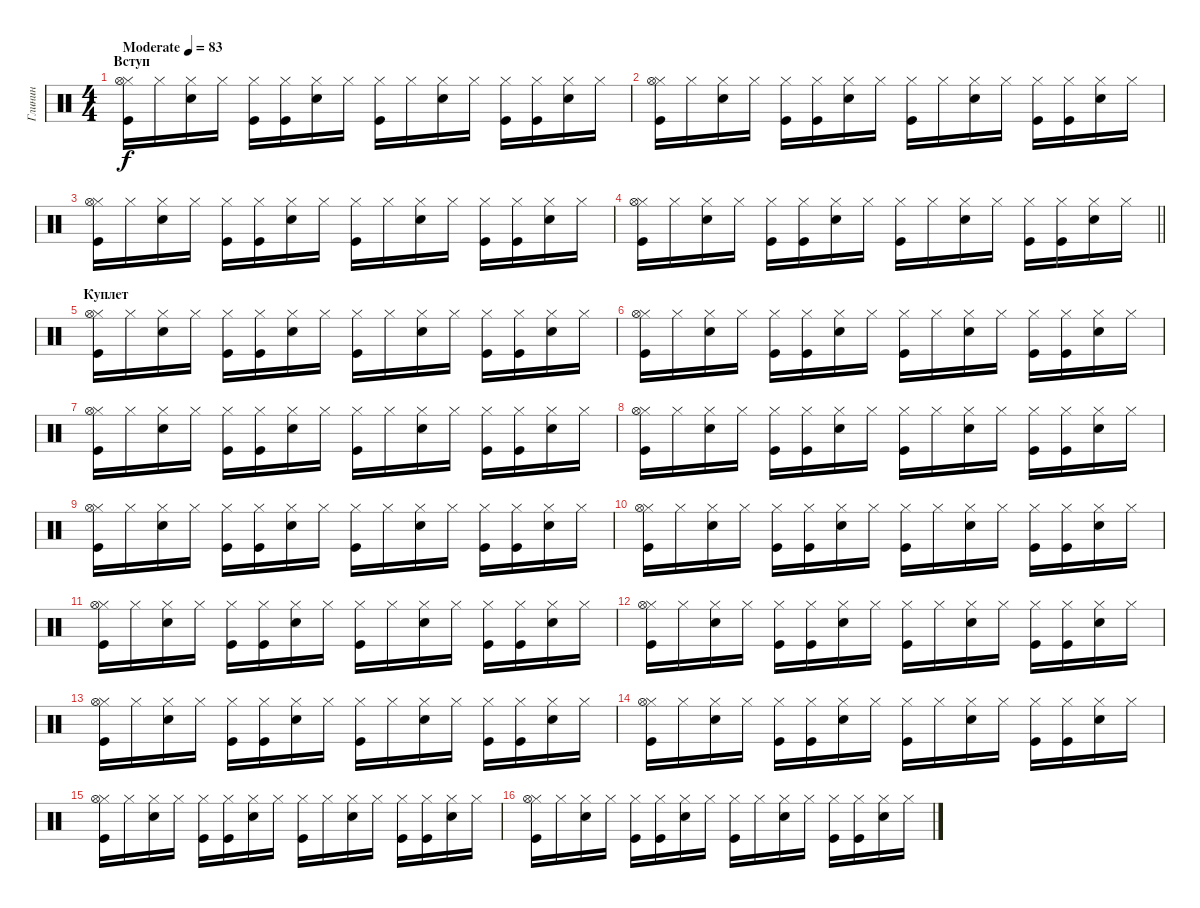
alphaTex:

\track ("Глинин" "Глинин") {instrument percussion}
\staff {score}
\articulation defaults
\ts (4 4)
\section ("" "Вступ")
\tempo (83 "Moderate")
\clef neutral
\ks c
("Hi-Hat (closed)" "Kick (hit)" "Hi-Hat (open)").16{dy f} "Hi-Hat (closed)".16 ("Hi-Hat (closed)" "Snare (hit) 2").16 "Hi-Hat (closed)".16 ("Hi-Hat (closed)" "Kick (hit)").16 ("Hi-Hat (closed)" "Kick (hit)").16 ("Hi-Hat (closed)" "Snare (hit) 2").16 "Hi-Hat (closed)".16 ("Hi-Hat (closed)" "Kick (hit)").16 "Hi-Hat (closed)".16 ("Hi-Hat (closed)" "Snare (hit) 2").16 "Hi-Hat (closed)".16 ("Hi-Hat (closed)" "Kick (hit)").16 ("Hi-Hat (closed)" "Kick (hit)").16 ("Hi-Hat (closed)" "Snare (hit) 2").16 "Hi-Hat (closed)".16 |
("Hi-Hat (closed)" "Kick (hit)" "Hi-Hat (open)").16 "Hi-Hat (closed)".16 ("Hi-Hat (closed)" "Snare (hit) 2").16 "Hi-Hat (closed)".16 ("Hi-Hat (closed)" "Kick (hit)").16 ("Hi-Hat (closed)" "Kick (hit)").16 ("Hi-Hat (closed)" "Snare (hit) 2").16 "Hi-Hat (closed)".16 ("Hi-Hat (closed)" "Kick (hit)").16 "Hi-Hat (closed)".16 ("Hi-Hat (closed)" "Snare (hit) 2").16 "Hi-Hat (closed)".16 ("Hi-Hat (closed)" "Kick (hit)").16 ("Hi-Hat (closed)" "Kick (hit)").16 ("Hi-Hat (closed)" "Snare (hit) 2").16 "Hi-Hat (closed)".16 |
("Hi-Hat (closed)" "Kick (hit)" "Hi-Hat (open)").16 "Hi-Hat (closed)".16 ("Hi-Hat (closed)" "Snare (hit) 2").16 "Hi-Hat (closed)".16 ("Hi-Hat (closed)" "Kick (hit)").16 ("Hi-Hat (closed)" "Kick (hit)").16 ("Hi-Hat (closed)" "Snare (hit) 2").16 "Hi-Hat (closed)".16 ("Hi-Hat (closed)" "Kick (hit)").16 "Hi-Hat (closed)".16 ("Hi-Hat (closed)" "Snare (hit) 2").16 "Hi-Hat (closed)".16 ("Hi-Hat (closed)" "Kick (hit)").16 ("Hi-Hat (closed)" "Kick (hit)").16 ("Hi-Hat (closed)" "Snare (hit) 2").16 "Hi-Hat (closed)".16 |
\barLineRight lightlight
("Hi-Hat (closed)" "Kick (hit)" "Hi-Hat (open)").16 "Hi-Hat (closed)".16 ("Hi-Hat (closed)" "Snare (hit) 2").16 "Hi-Hat (closed)".16 ("Hi-Hat (closed)" "Kick (hit)").16 ("Hi-Hat (closed)" "Kick (hit)").16 ("Hi-Hat (closed)" "Snare (hit) 2").16 "Hi-Hat (closed)".16 ("Hi-Hat (closed)" "Kick (hit)").16 "Hi-Hat (closed)".16 ("Hi-Hat (closed)" "Snare (hit) 2").16 "Hi-Hat (closed)".16 ("Hi-Hat (closed)" "Kick (hit)").16 ("Hi-Hat (closed)" "Kick (hit)").16 ("Hi-Hat (closed)" "Snare (hit) 2").16 "Hi-Hat (closed)".16 |
\section ("" "Куплет")
("Hi-Hat (closed)" "Kick (hit)" "Hi-Hat (open)").16 "Hi-Hat (closed)".16 ("Hi-Hat (closed)" "Snare (hit) 2").16 "Hi-Hat (closed)".16 ("Hi-Hat (closed)" "Kick (hit)").16 ("Hi-Hat (closed)" "Kick (hit)").16 ("Hi-Hat (closed)" "Snare (hit) 2").16 "Hi-Hat (closed)".16 ("Hi-Hat (closed)" "Kick (hit)").16 "Hi-Hat (closed)".16 ("Hi-Hat (closed)" "Snare (hit) 2").16 "Hi-Hat (closed)".16 ("Hi-Hat (closed)" "Kick (hit)").16 ("Hi-Hat (closed)" "Kick (hit)").16 ("Hi-Hat (closed)" "Snare (hit) 2").16 "Hi-Hat (closed)".16 |
("Hi-Hat (closed)" "Kick (hit)" "Hi-Hat (open)").16 "Hi-Hat (closed)".16 ("Hi-Hat (closed)" "Snare (hit) 2").16 "Hi-Hat (closed)".16 ("Hi-Hat (closed)" "Kick (hit)").16 ("Hi-Hat (closed)" "Kick (hit)").16 ("Hi-Hat (closed)" "Snare (hit) 2").16 "Hi-Hat (closed)".16 ("Hi-Hat (closed)" "Kick (hit)").16 "Hi-Hat (closed)".16 ("Hi-Hat (closed)" "Snare (hit) 2").16 "Hi-Hat (closed)".16 ("Hi-Hat (closed)" "Kick (hit)").16 ("Hi-Hat (closed)" "Kick (hit)").16 ("Hi-Hat (closed)" "Snare (hit) 2").16 "Hi-Hat (closed)".16 |
("Hi-Hat (closed)" "Kick (hit)" "Hi-Hat (open)").16 "Hi-Hat (closed)".16 ("Hi-Hat (closed)" "Snare (hit) 2").16 "Hi-Hat (closed)".16 ("Hi-Hat (closed)" "Kick (hit)").16 ("Hi-Hat (closed)" "Kick (hit)").16 ("Hi-Hat (closed)" "Snare (hit) 2").16 "Hi-Hat (closed)".16 ("Hi-Hat (closed)" "Kick (hit)").16 "Hi-Hat (closed)".16 ("Hi-Hat (closed)" "Snare (hit) 2").16 "Hi-Hat (closed)".16 ("Hi-Hat (closed)" "Kick (hit)").16 ("Hi-Hat (closed)" "Kick (hit)").16 ("Hi-Hat (closed)" "Snare (hit) 2").16 "Hi-Hat (closed)".16 |
("Hi-Hat (closed)" "Kick (hit)" "Hi-Hat (open)").16 "Hi-Hat (closed)".16 ("Hi-Hat (closed)" "Snare (hit) 2").16 "Hi-Hat (closed)".16 ("Hi-Hat (closed)" "Kick (hit)").16 ("Hi-Hat (closed)" "Kick (hit)").16 ("Hi-Hat (closed)" "Snare (hit) 2").16 "Hi-Hat (closed)".16 ("Hi-Hat (closed)" "Kick (hit)").16 "Hi-Hat (closed)".16 ("Hi-Hat (closed)" "Snare (hit) 2").16 "Hi-Hat (closed)".16 ("Hi-Hat (closed)" "Kick (hit)").16 ("Hi-Hat (closed)" "Kick (hit)").16 ("Hi-Hat (closed)" "Snare (hit) 2").16 "Hi-Hat (closed)".16 |
("Hi-Hat (closed)" "Kick (hit)" "Hi-Hat (open)").16 "Hi-Hat (closed)".16 ("Hi-Hat (closed)" "Snare (hit) 2").16 "Hi-Hat (closed)".16 ("Hi-Hat (closed)" "Kick (hit)").16 ("Hi-Hat (closed)" "Kick (hit)").16 ("Hi-Hat (closed)" "Snare (hit) 2").16 "Hi-Hat (closed)".16 ("Hi-Hat (closed)" "Kick (hit)").16 "Hi-Hat (closed)".16 ("Hi-Hat (closed)" "Snare (hit) 2").16 "Hi-Hat (closed)".16 ("Hi-Hat (closed)" "Kick (hit)").16 ("Hi-Hat (closed)" "Kick (hit)").16 ("Hi-Hat (closed)" "Snare (hit) 2").16 "Hi-Hat (closed)".16 |
("Hi-Hat (closed)" "Kick (hit)" "Hi-Hat (open)").16 "Hi-Hat (closed)".16 ("Hi-Hat (closed)" "Snare (hit) 2").16 "Hi-Hat (closed)".16 ("Hi-Hat (closed)" "Kick (hit)").16 ("Hi-Hat (closed)" "Kick (hit)").16 ("Hi-Hat (closed)" "Snare (hit) 2").16 "Hi-Hat (closed)".16 ("Hi-Hat (closed)" "Kick (hit)").16 "Hi-Hat (closed)".16 ("Hi-Hat (closed)" "Snare (hit) 2").16 "Hi-Hat (closed)".16 ("Hi-Hat (closed)" "Kick (hit)").16 ("Hi-Hat (closed)" "Kick (hit)").16 ("Hi-Hat (closed)" "Snare (hit) 2").16 "Hi-Hat (closed)".16 |
("Hi-Hat (closed)" "Kick (hit)" "Hi-Hat (open)").16 "Hi-Hat (closed)".16 ("Hi-Hat (closed)" "Snare (hit) 2").16 "Hi-Hat (closed)".16 ("Hi-Hat (closed)" "Kick (hit)").16 ("Hi-Hat (closed)" "Kick (hit)").16 ("Hi-Hat (closed)" "Snare (hit) 2").16 "Hi-Hat (closed)".16 ("Hi-Hat (closed)" "Kick (hit)").16 "Hi-Hat (closed)".16 ("Hi-Hat (closed)" "Snare (hit) 2").16 "Hi-Hat (closed)".16 ("Hi-Hat (closed)" "Kick (hit)").16 ("Hi-Hat (closed)" "Kick (hit)").16 ("Hi-Hat (closed)" "Snare (hit) 2").16 "Hi-Hat (closed)".16 |
("Hi-Hat (closed)" "Kick (hit)" "Hi-Hat (open)").16 "Hi-Hat (closed)".16 ("Hi-Hat (closed)" "Snare (hit) 2").16 "Hi-Hat (closed)".16 ("Hi-Hat (closed)" "Kick (hit)").16 ("Hi-Hat (closed)" "Kick (hit)").16 ("Hi-Hat (closed)" "Snare (hit) 2").16 "Hi-Hat (closed)".16 ("Hi-Hat (closed)" "Kick (hit)").16 "Hi-Hat (closed)".16 ("Hi-Hat (closed)" "Snare (hit) 2").16 "Hi-Hat (closed)".16 ("Hi-Hat (closed)" "Kick (hit)").16 ("Hi-Hat (closed)" "Kick (hit)").16 ("Hi-Hat (closed)" "Snare (hit) 2").16 "Hi-Hat (closed)".16 |
("Hi-Hat (closed)" "Kick (hit)" "Hi-Hat (open)").16 "Hi-Hat (closed)".16 ("Hi-Hat (closed)" "Snare (hit) 2").16 "Hi-Hat (closed)".16 ("Hi-Hat (closed)" "Kick (hit)").16 ("Hi-Hat (closed)" "Kick (hit)").16 ("Hi-Hat (closed)" "Snare (hit) 2").16 "Hi-Hat (closed)".16 ("Hi-Hat (closed)" "Kick (hit)").16 "Hi-Hat (closed)".16 ("Hi-Hat (closed)" "Snare (hit) 2").16 "Hi-Hat (closed)".16 ("Hi-Hat (closed)" "Kick (hit)").16 ("Hi-Hat (closed)" "Kick (hit)").16 ("Hi-Hat (closed)" "Snare (hit) 2").16 "Hi-Hat (closed)".16 |
("Hi-Hat (closed)" "Kick (hit)" "Hi-Hat (open)").16 "Hi-Hat (closed)".16 ("Hi-Hat (closed)" "Snare (hit) 2").16 "Hi-Hat (closed)".16 ("Hi-Hat (closed)" "Kick (hit)").16 ("Hi-Hat (closed)" "Kick (hit)").16 ("Hi-Hat (closed)" "Snare (hit) 2").16 "Hi-Hat (closed)".16 ("Hi-Hat (closed)" "Kick (hit)").16 "Hi-Hat (closed)".16 ("Hi-Hat (closed)" "Snare (hit) 2").16 "Hi-Hat (closed)".16 ("Hi-Hat (closed)" "Kick (hit)").16 ("Hi-Hat (closed)" "Kick (hit)").16 ("Hi-Hat (closed)" "Snare (hit) 2").16 "Hi-Hat (closed)".16 |
("Hi-Hat (closed)" "Kick (hit)" "Hi-Hat (open)").16 "Hi-Hat (closed)".16 ("Hi-Hat (closed)" "Snare (hit) 2").16 "Hi-Hat (closed)".16 ("Hi-Hat (closed)" "Kick (hit)").16 ("Hi-Hat (closed)" "Kick (hit)").16 ("Hi-Hat (closed)" "Snare (hit) 2").16 "Hi-Hat (closed)".16 ("Hi-Hat (closed)" "Kick (hit)").16 "Hi-Hat (closed)".16 ("Hi-Hat (closed)" "Snare (hit) 2").16 "Hi-Hat (closed)".16 ("Hi-Hat (closed)" "Kick (hit)").16 ("Hi-Hat (closed)" "Kick (hit)").16 ("Hi-Hat (closed)" "Snare (hit) 2").16 "Hi-Hat (closed)".16 |
("Hi-Hat (closed)" "Kick (hit)" "Hi-Hat (open)").16 "Hi-Hat (closed)".16 ("Hi-Hat (closed)" "Snare (hit) 2").16 "Hi-Hat (closed)".16 ("Hi-Hat (closed)" "Kick (hit)").16 ("Hi-Hat (closed)" "Kick (hit)").16 ("Hi-Hat (closed)" "Snare (hit) 2").16 "Hi-Hat (closed)".16 ("Hi-Hat (closed)" "Kick (hit)").16 "Hi-Hat (closed)".16 ("Hi-Hat (closed)" "Snare (hit) 2").16 "Hi-Hat (closed)".16 ("Hi-Hat (closed)" "Kick (hit)").16 ("Hi-Hat (closed)" "Kick (hit)").16 ("Hi-Hat (closed)" "Snare (hit) 2").16 "Hi-Hat (closed)".16
